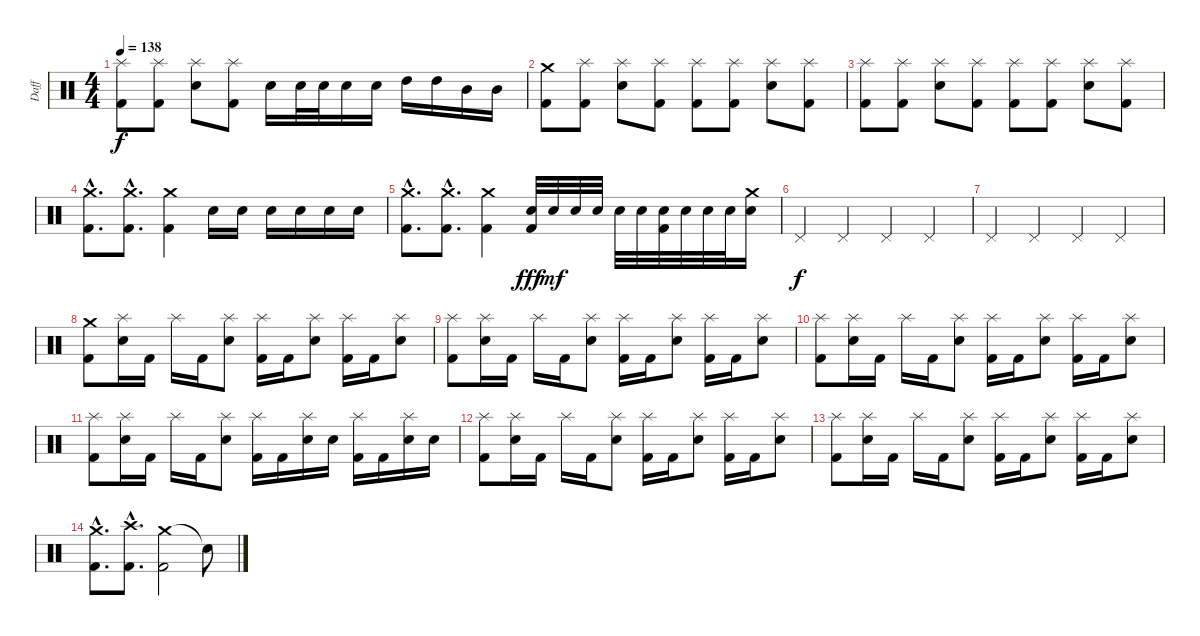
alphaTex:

\track ("Daff" "Daff") {instrument percussion}
\staff {score}
\articulation defaults
\ts (4 4)
\tempo 138
\clef neutral
\ks c
("Splash (hit)" "Kick (hit) 2").8{dy f} ("Splash (hit)" "Kick (hit) 2").8 ("Splash (hit)" "Electric Snare (hit)").8 ("Splash (hit)" "Kick (hit) 2").8 "Electric Snare (hit)".16 "Electric Snare (hit)".32 "Electric Snare (hit)".32 "Electric Snare (hit)".16 "Electric Snare (hit)".16 "High Tom (hit)".16 "High Tom (hit)".16 "Mid Tom (hit)".16 "Mid Tom (hit)".16 |
("Crash medium (hit)" "Kick (hit) 2").8 ("Splash (hit)" "Kick (hit) 2").8 ("Splash (hit)" "Electric Snare (hit)").8 ("Splash (hit)" "Kick (hit) 2").8 ("Splash (hit)" "Kick (hit) 2").8 ("Splash (hit)" "Kick (hit) 2").8 ("Splash (hit)" "Electric Snare (hit)").8 ("Splash (hit)" "Kick (hit) 2").8 |
("Splash (hit)" "Kick (hit) 2").8 ("Splash (hit)" "Kick (hit) 2").8 ("Splash (hit)" "Electric Snare (hit)").8 ("Splash (hit)" "Kick (hit) 2").8 ("Splash (hit)" "Kick (hit) 2").8 ("Splash (hit)" "Kick (hit) 2").8 ("Splash (hit)" "Electric Snare (hit)").8 ("Splash (hit)" "Kick (hit) 2").8 |
("Crash medium (hit)"{hac} "Kick (hit) 2"{hac}).8{d} ("Crash medium (hit)"{hac} "Kick (hit) 2"{hac}).8{d} ("Crash medium (hit)" "Kick (hit) 2").4 "Electric Snare (hit)".16 "Electric Snare (hit)".16 "Electric Snare (hit)".16 "Electric Snare (hit)".16 "Electric Snare (hit)".16 "Electric Snare (hit)".16 |
("Crash medium (hit)"{hac} "Kick (hit) 2"{hac}).8{d} ("Crash medium (hit)"{hac} "Kick (hit) 2"{hac}).8{d} ("Crash medium (hit)" "Kick (hit) 2").4 ("Electric Snare (hit)" "Kick (hit) 2").32{dy fff} "Electric Snare (hit)".32{dy mf} "Electric Snare (hit)".32 "Electric Snare (hit)".32 "Electric Snare (hit)".32 "Electric Snare (hit)".32 ("Electric Snare (hit)" "Kick (hit) 2").32 "Electric Snare (hit)".32 "Electric Snare (hit)".32 "Electric Snare (hit)".32 ("Crash medium (hit)" "Electric Snare (hit)").16 |
"Pedal Hi-Hat (hit)".4{dy f} "Pedal Hi-Hat (hit)".4 "Pedal Hi-Hat (hit)".4 "Pedal Hi-Hat (hit)".4 |
"Pedal Hi-Hat (hit)".4 "Pedal Hi-Hat (hit)".4 "Pedal Hi-Hat (hit)".4 "Pedal Hi-Hat (hit)".4 |
("Crash medium (hit)" "Kick (hit) 2").8 ("Splash (hit)" "Electric Snare (hit)").16 "Kick (hit) 2".16 "Splash (hit)".16 "Kick (hit) 2".16 ("Splash (hit)" "Electric Snare (hit)").8 ("Splash (hit)" "Kick (hit) 2").16 "Kick (hit) 2".16 ("Splash (hit)" "Electric Snare (hit)").8 ("Splash (hit)" "Kick (hit) 2").16 "Kick (hit) 2".16 ("Splash (hit)" "Electric Snare (hit)").8 |
("Splash (hit)" "Kick (hit) 2").8 ("Splash (hit)" "Electric Snare (hit)").16 "Kick (hit) 2".16 "Splash (hit)".16 "Kick (hit) 2".16 ("Splash (hit)" "Electric Snare (hit)").8 ("Splash (hit)" "Kick (hit) 2").16 "Kick (hit) 2".16 ("Splash (hit)" "Electric Snare (hit)").8 ("Splash (hit)" "Kick (hit) 2").16 "Kick (hit) 2".16 ("Splash (hit)" "Electric Snare (hit)").8 |
("Splash (hit)" "Kick (hit) 2").8 ("Splash (hit)" "Electric Snare (hit)").16 "Kick (hit) 2".16 "Splash (hit)".16 "Kick (hit) 2".16 ("Splash (hit)" "Electric Snare (hit)").8 ("Splash (hit)" "Kick (hit) 2").16 "Kick (hit) 2".16 ("Splash (hit)" "Electric Snare (hit)").8 ("Splash (hit)" "Kick (hit) 2").16 "Kick (hit) 2".16 ("Splash (hit)" "Electric Snare (hit)").8 |
("Splash (hit)" "Kick (hit) 2").8 ("Splash (hit)" "Electric Snare (hit)").16 "Kick (hit) 2".16 "Splash (hit)".16 "Kick (hit) 2".16 ("Splash (hit)" "Electric Snare (hit)").8 ("Splash (hit)" "Kick (hit) 2").16 "Kick (hit) 2".16 ("Splash (hit)" "Electric Snare (hit)").16 "Electric Snare (hit)".16 ("Splash (hit)" "Kick (hit) 2").16 "Kick (hit) 2".16 ("Splash (hit)" "Electric Snare (hit)").16 "Electric Snare (hit)".16 |
("Splash (hit)" "Kick (hit) 2").8 ("Splash (hit)" "Electric Snare (hit)").16 "Kick (hit) 2".16 "Splash (hit)".16 "Kick (hit) 2".16 ("Splash (hit)" "Electric Snare (hit)").8 ("Splash (hit)" "Kick (hit) 2").16 "Kick (hit) 2".16 ("Splash (hit)" "Electric Snare (hit)").8 ("Splash (hit)" "Kick (hit) 2").16 "Kick (hit) 2".16 ("Splash (hit)" "Electric Snare (hit)").8 |
("Splash (hit)" "Kick (hit) 2").8 ("Splash (hit)" "Electric Snare (hit)").16 "Kick (hit) 2".16 "Splash (hit)".16 "Kick (hit) 2".16 ("Splash (hit)" "Electric Snare (hit)").8 ("Splash (hit)" "Kick (hit) 2").16 "Kick (hit) 2".16 ("Splash (hit)" "Electric Snare (hit)").8 ("Splash (hit)" "Kick (hit) 2").16 "Kick (hit) 2".16 ("Splash (hit)" "Electric Snare (hit)").8 |
("Crash medium (hit)"{hac} "Kick (hit) 2"{hac}).8{d} ("Crash high (hit)"{hac} "Kick (hit) 2"{hac}).8{d} ("Crash medium (hit)" "Kick (hit) 2").2 "Snare (hit)"{t}.8
